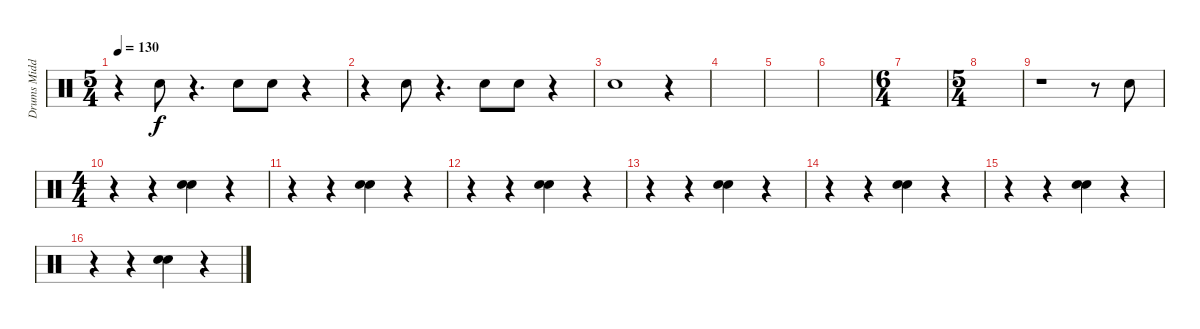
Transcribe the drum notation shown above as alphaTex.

\track ("Drums Middle" "Drums Midd") {instrument percussion}
\staff {score}
\articulation defaults
\ts (5 4)
\tempo 130
\clef neutral
\ks c
r.4{dy f} "Electric Snare (hit)".8 r.4{d} "Electric Snare (hit)".8 "Electric Snare (hit)".8 r.4 |
r.4 "Electric Snare (hit)".8 r.4{d} "Electric Snare (hit)".8 "Electric Snare (hit)".8 r.4 |
"Electric Snare (hit)".1 r.4 |
|
|
|
\ts (6 4)
|
\ts (5 4)
|
r.1 r.8{volume 8} "Electric Snare (hit)".8 |
\ts (4 4)
r.4 r.4 ("Snare (hit) 2" "Electric Snare (hit)").4 r.4 |
r.4 r.4 ("Snare (hit) 2" "Electric Snare (hit)").4 r.4 |
r.4 r.4 ("Snare (hit) 2" "Electric Snare (hit)").4 r.4 |
r.4 r.4 ("Snare (hit) 2" "Electric Snare (hit)").4 r.4 |
r.4 r.4 ("Snare (hit) 2" "Electric Snare (hit)").4 r.4 |
r.4 r.4 ("Snare (hit) 2" "Electric Snare (hit)").4 r.4 |
r.4 r.4 ("Snare (hit) 2" "Electric Snare (hit)").4 r.4
